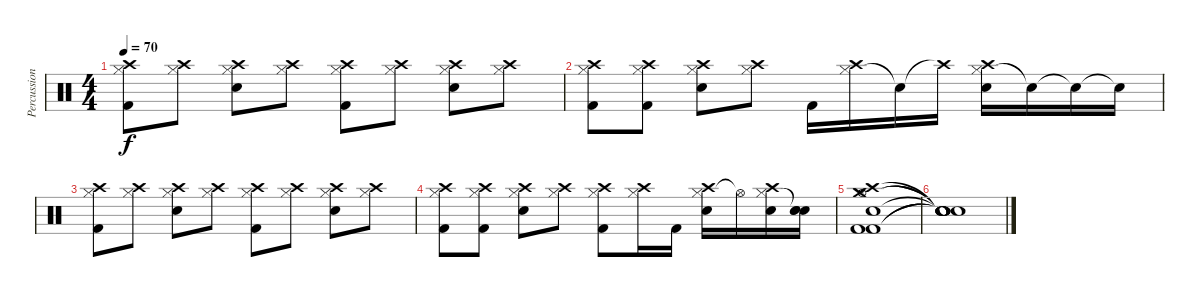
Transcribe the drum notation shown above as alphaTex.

\track ("Percussion" "Percussion") {instrument percussion}
\staff {score}
\articulation defaults
\ts (4 4)
\tempo 70
\clef neutral
\ks c
("Hi-Hat (closed)" "Crash high (hit)" "Kick (hit) 2").8{dy f} ("Hi-Hat (closed)" "Crash high (hit)").8 ("Hi-Hat (closed)" "Snare (hit) 2" "Crash high (hit)").8 ("Hi-Hat (closed)" "Crash high (hit)").8 ("Hi-Hat (closed)" "Crash high (hit)" "Kick (hit) 2").8 ("Hi-Hat (closed)" "Crash high (hit)").8 ("Hi-Hat (closed)" "Snare (hit) 2" "Crash high (hit)").8 ("Hi-Hat (closed)" "Crash high (hit)").8 |
("Hi-Hat (closed)" "Crash high (hit)" "Kick (hit) 2").8 ("Hi-Hat (closed)" "Crash high (hit)" "Kick (hit) 2").8 ("Hi-Hat (closed)" "Snare (hit) 2" "Crash high (hit)").8 ("Hi-Hat (closed)" "Crash high (hit)").8 "Kick (hit) 2".16 ("Hi-Hat (closed)" "Crash high (hit)").16 "Snare (hit) 2"{t}.16 "Crash high (hit)"{t}.16 ("Hi-Hat (closed)" "Crash high (hit)" "Snare (hit) 2").16 "Snare (hit)"{t}.16 "Snare (hit)"{t}.16 "Snare (hit)"{t}.16 |
("Hi-Hat (closed)" "Crash high (hit)" "Kick (hit) 2").8 ("Hi-Hat (closed)" "Crash high (hit)").8 ("Hi-Hat (closed)" "Snare (hit) 2" "Crash high (hit)").8 ("Hi-Hat (closed)" "Crash high (hit)").8 ("Hi-Hat (closed)" "Crash high (hit)" "Kick (hit) 2").8 ("Hi-Hat (closed)" "Crash high (hit)").8 ("Hi-Hat (closed)" "Snare (hit) 2" "Crash high (hit)").8 ("Hi-Hat (closed)" "Crash high (hit)").8 |
("Hi-Hat (closed)" "Crash high (hit)" "Kick (hit) 2").8 ("Hi-Hat (closed)" "Crash high (hit)" "Kick (hit) 2").8 ("Hi-Hat (closed)" "Snare (hit) 2" "Crash high (hit)").8 ("Hi-Hat (closed)" "Crash high (hit)").8 ("Hi-Hat (closed)" "Crash high (hit)" "Kick (hit) 2").8 ("Hi-Hat (closed)" "Crash high (hit)").16 "Kick (hit) 2".16 ("Hi-Hat (closed)" "Snare (hit) 2" "Crash high (hit)").16 "Hi-Hat (open)"{t}.16 ("Hi-Hat (closed)" "Crash high (hit)" "Snare (hit) 2").16 ("Snare (hit)"{t} "Snare (hit) 2" "Snare (hit) 2").16 |
("Hi-Hat (open)" "Crash high (hit)" "Crash medium (hit)" "Electric Snare (hit)" "Kick (hit) 2" "Kick (hit) 2").1 |
("Snare (hit)"{t} "Snare (hit)"{t} "Snare (hit)"{t} "Snare (hit)"{t} "Snare (hit)"{t} "Snare (hit)"{t}).1
